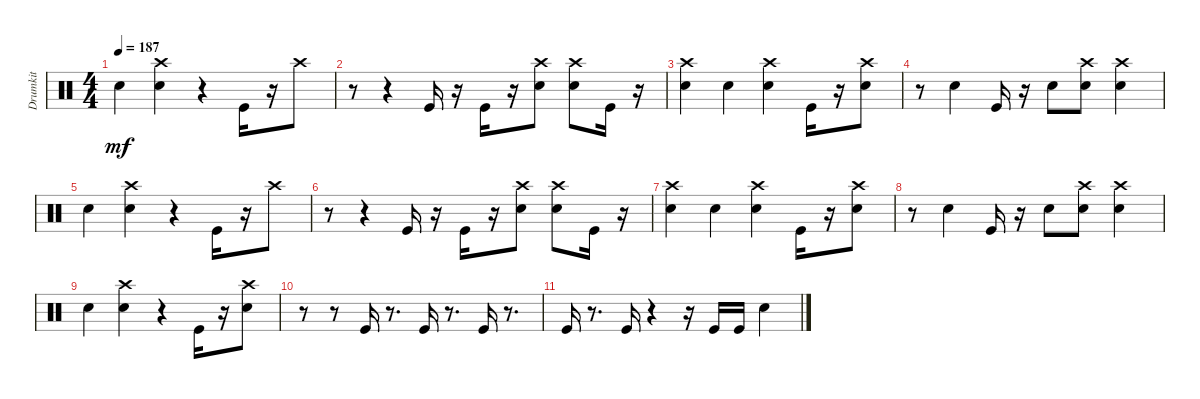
\track ("Drumkit" "Drumkit") {instrument percussion}
\staff {score}
\articulation defaults
\ts (4 4)
\tempo 187
\clef neutral
\ks c "Snare (hit) 2".4{dy mf}
("Crash high (hit)" "Snare (hit) 2").4 r.4 "Kick (hit)".16 r.16 "Crash high (hit)".8 |
r.8 r.4 "Kick (hit)".16 r.16 "Kick (hit)".16 r.16 ("Crash high (hit)" "Snare (hit) 2").8 ("Crash high (hit)" "Snare (hit) 2").8 "Kick (hit)".16 r.16 |
("Crash high (hit)" "Snare (hit) 2").4 "Snare (hit) 2".4 ("Crash high (hit)" "Snare (hit) 2").4 "Kick (hit)".16 r.16 ("Crash high (hit)" "Snare (hit) 2").8 |
r.8 "Snare (hit) 2".4 "Kick (hit)".16 r.16 "Snare (hit) 2".8 ("Crash high (hit)" "Snare (hit) 2").8 ("Crash high (hit)" "Snare (hit) 2").4 |
"Snare (hit) 2".4 ("Crash high (hit)" "Snare (hit) 2").4 r.4 "Kick (hit)".16 r.16 "Crash high (hit)".8 |
r.8 r.4 "Kick (hit)".16 r.16 "Kick (hit)".16 r.16 ("Crash high (hit)" "Snare (hit) 2").8 ("Crash high (hit)" "Snare (hit) 2").8 "Kick (hit)".16 r.16 |
("Crash high (hit)" "Snare (hit) 2").4 "Snare (hit) 2".4 ("Crash high (hit)" "Snare (hit) 2").4 "Kick (hit)".16 r.16 ("Crash high (hit)" "Snare (hit) 2").8 |
r.8 "Snare (hit) 2".4 "Kick (hit)".16 r.16 "Snare (hit) 2".8 ("Crash high (hit)" "Snare (hit) 2").8 ("Crash high (hit)" "Snare (hit) 2").4 |
"Snare (hit) 2".4 ("Crash high (hit)" "Snare (hit) 2").4 r.4 "Kick (hit)".16 r.16 ("Crash high (hit)" "Snare (hit) 2").8 |
r.8 r.8 "Kick (hit)".16 r.8{d} "Kick (hit)".16 r.8{d} "Kick (hit)".16 r.8{d} |
"Kick (hit)".16 r.8{d} "Kick (hit)".16 r.4 r.16 "Kick (hit)".16 "Kick (hit)".16 "Snare (hit) 2".4
